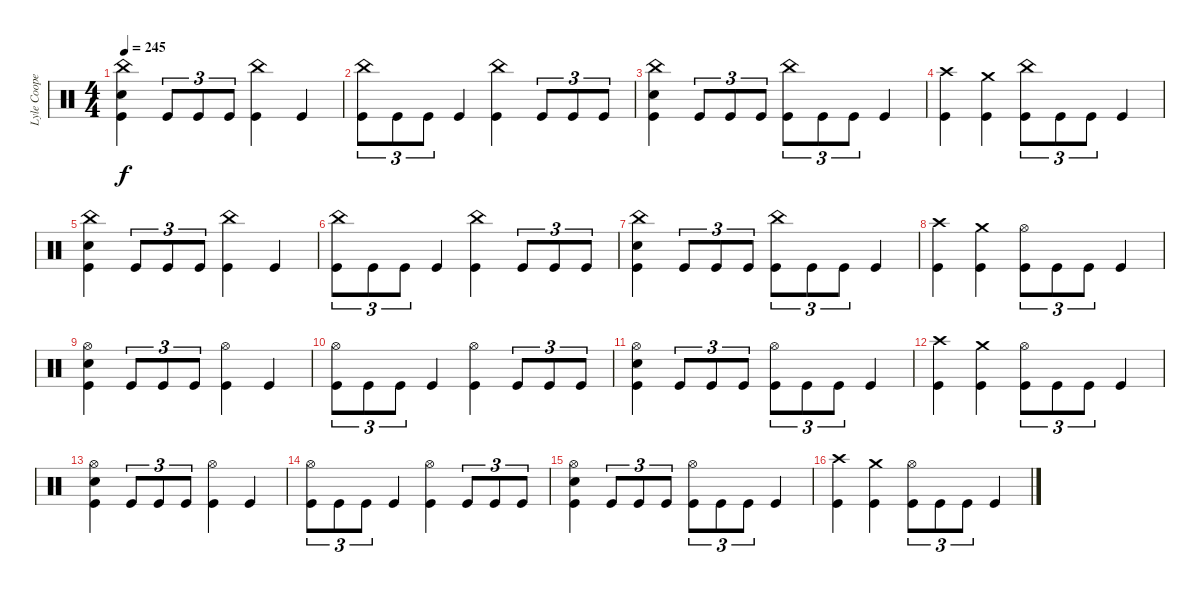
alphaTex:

\track ("Lyle Cooper" "Lyle Coope") {instrument percussion}
\staff {score}
\articulation defaults
\ts (4 4)
\tempo 245
\clef neutral
\ks c
("China (hit)" "Snare (hit) 2" "Kick (hit)").4{dy f} "Kick (hit)".8{tu (3 2)} "Kick (hit)".8{tu (3 2)} "Kick (hit)".8{tu (3 2)} ("China (hit)" "Kick (hit)").4 "Kick (hit)".4 |
("China (hit)" "Kick (hit)").8{tu (3 2)} "Kick (hit)".8{tu (3 2)} "Kick (hit)".8{tu (3 2)} "Kick (hit)".4 ("China (hit)" "Kick (hit)").4 "Kick (hit)".8{tu (3 2)} "Kick (hit)".8{tu (3 2)} "Kick (hit)".8{tu (3 2)} |
("China (hit)" "Snare (hit) 2" "Kick (hit)").4 "Kick (hit)".8{tu (3 2)} "Kick (hit)".8{tu (3 2)} "Kick (hit)".8{tu (3 2)} ("China (hit)" "Kick (hit)").8{tu (3 2)} "Kick (hit)".8{tu (3 2)} "Kick (hit)".8{tu (3 2)} "Kick (hit)".4 |
("Crash high (hit)" "Kick (hit)").4 ("Crash medium (hit)" "Kick (hit)").4 ("China (hit)" "Kick (hit)").8{tu (3 2)} "Kick (hit)".8{tu (3 2)} "Kick (hit)".8{tu (3 2)} "Kick (hit)".4 |
("China (hit)" "Snare (hit) 2" "Kick (hit)").4 "Kick (hit)".8{tu (3 2)} "Kick (hit)".8{tu (3 2)} "Kick (hit)".8{tu (3 2)} ("China (hit)" "Kick (hit)").4 "Kick (hit)".4 |
("China (hit)" "Kick (hit)").8{tu (3 2)} "Kick (hit)".8{tu (3 2)} "Kick (hit)".8{tu (3 2)} "Kick (hit)".4 ("China (hit)" "Kick (hit)").4 "Kick (hit)".8{tu (3 2)} "Kick (hit)".8{tu (3 2)} "Kick (hit)".8{tu (3 2)} |
("China (hit)" "Snare (hit) 2" "Kick (hit)").4 "Kick (hit)".8{tu (3 2)} "Kick (hit)".8{tu (3 2)} "Kick (hit)".8{tu (3 2)} ("China (hit)" "Kick (hit)").8{tu (3 2)} "Kick (hit)".8{tu (3 2)} "Kick (hit)".8{tu (3 2)} "Kick (hit)".4 |
("Crash high (hit)" "Kick (hit)").4 ("Crash medium (hit)" "Kick (hit)").4 ("Hi-Hat (open)" "Kick (hit)").8{tu (3 2)} "Kick (hit)".8{tu (3 2)} "Kick (hit)".8{tu (3 2)} "Kick (hit)".4 |
("Hi-Hat (open)" "Snare (hit) 2" "Kick (hit)").4 "Kick (hit)".8{tu (3 2)} "Kick (hit)".8{tu (3 2)} "Kick (hit)".8{tu (3 2)} ("Hi-Hat (open)" "Kick (hit)").4 "Kick (hit)".4 |
("Hi-Hat (open)" "Kick (hit)").8{tu (3 2)} "Kick (hit)".8{tu (3 2)} "Kick (hit)".8{tu (3 2)} "Kick (hit)".4 ("Hi-Hat (open)" "Kick (hit)").4 "Kick (hit)".8{tu (3 2)} "Kick (hit)".8{tu (3 2)} "Kick (hit)".8{tu (3 2)} |
("Hi-Hat (open)" "Snare (hit) 2" "Kick (hit)").4 "Kick (hit)".8{tu (3 2)} "Kick (hit)".8{tu (3 2)} "Kick (hit)".8{tu (3 2)} ("Hi-Hat (open)" "Kick (hit)").8{tu (3 2)} "Kick (hit)".8{tu (3 2)} "Kick (hit)".8{tu (3 2)} "Kick (hit)".4 |
("Crash high (hit)" "Kick (hit)").4 ("Crash medium (hit)" "Kick (hit)").4 ("Hi-Hat (open)" "Kick (hit)").8{tu (3 2)} "Kick (hit)".8{tu (3 2)} "Kick (hit)".8{tu (3 2)} "Kick (hit)".4 |
("Hi-Hat (open)" "Snare (hit) 2" "Kick (hit)").4 "Kick (hit)".8{tu (3 2)} "Kick (hit)".8{tu (3 2)} "Kick (hit)".8{tu (3 2)} ("Hi-Hat (open)" "Kick (hit)").4 "Kick (hit)".4 |
("Hi-Hat (open)" "Kick (hit)").8{tu (3 2)} "Kick (hit)".8{tu (3 2)} "Kick (hit)".8{tu (3 2)} "Kick (hit)".4 ("Hi-Hat (open)" "Kick (hit)").4 "Kick (hit)".8{tu (3 2)} "Kick (hit)".8{tu (3 2)} "Kick (hit)".8{tu (3 2)} |
("Hi-Hat (open)" "Snare (hit) 2" "Kick (hit)").4 "Kick (hit)".8{tu (3 2)} "Kick (hit)".8{tu (3 2)} "Kick (hit)".8{tu (3 2)} ("Hi-Hat (open)" "Kick (hit)").8{tu (3 2)} "Kick (hit)".8{tu (3 2)} "Kick (hit)".8{tu (3 2)} "Kick (hit)".4 |
("Crash high (hit)" "Kick (hit)").4 ("Crash medium (hit)" "Kick (hit)").4 ("Hi-Hat (open)" "Kick (hit)").8{tu (3 2)} "Kick (hit)".8{tu (3 2)} "Kick (hit)".8{tu (3 2)} "Kick (hit)".4
